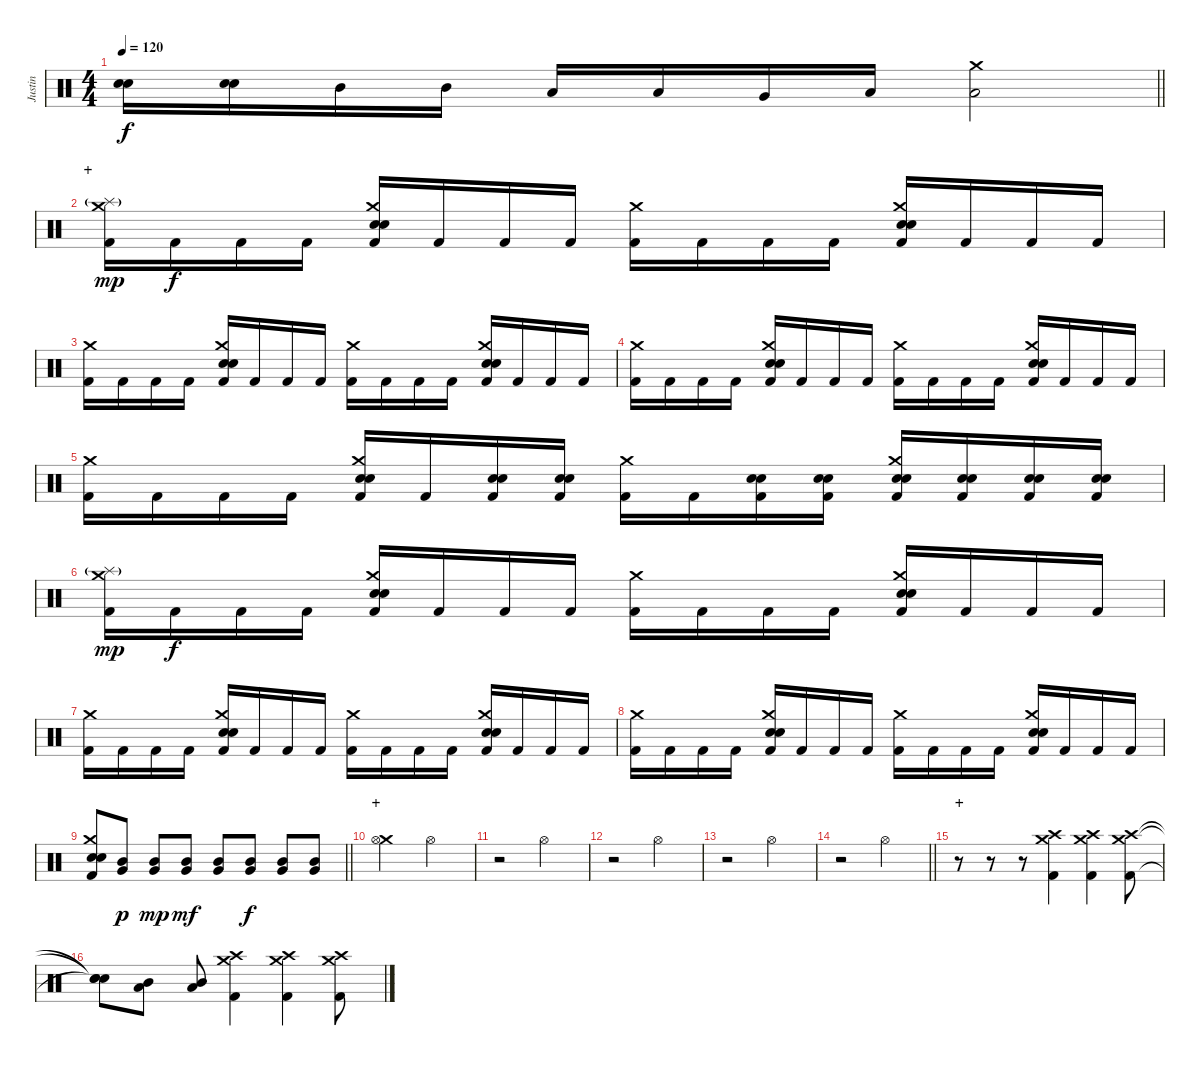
\track ("Justin" "Justin") {instrument percussion}
\staff {score}
\articulation defaults
\ts (4 4)
\tempo 120
\clef neutral
\barLineRight lightlight
\ks c
("Electric Snare (hit)" "Snare (hit) 2").16{dy f} ("Electric Snare (hit)" "Snare (hit) 2").16 "Mid Tom (hit)".16 "Mid Tom (hit)".16 "Low Tom (hit)".16 "Low Tom (hit)".16 "Very Low Tom (hit)".16 "Low Floor Tom (hit)".16 ("Crash medium (hit)" "Low Tom (hit)").2 |
\section ("" "+")
("Crash medium (hit)" "Splash (hit)"{g} "Kick (hit) 2").16{dy mp} "Kick (hit) 2".16{dy f} "Kick (hit) 2".16 "Kick (hit) 2".16 ("Crash medium (hit)" "Electric Snare (hit)" "Snare (hit) 2" "Kick (hit) 2").16 "Kick (hit) 2".16 "Kick (hit) 2".16 "Kick (hit) 2".16 ("Crash medium (hit)" "Kick (hit) 2").16 "Kick (hit) 2".16 "Kick (hit) 2".16 "Kick (hit) 2".16 ("Crash medium (hit)" "Electric Snare (hit)" "Snare (hit) 2" "Kick (hit) 2").16 "Kick (hit) 2".16 "Kick (hit) 2".16 "Kick (hit) 2".16 |
("Crash medium (hit)" "Kick (hit) 2").16 "Kick (hit) 2".16 "Kick (hit) 2".16 "Kick (hit) 2".16 ("Crash medium (hit)" "Electric Snare (hit)" "Snare (hit) 2" "Kick (hit) 2").16 "Kick (hit) 2".16 "Kick (hit) 2".16 "Kick (hit) 2".16 ("Crash medium (hit)" "Kick (hit) 2").16 "Kick (hit) 2".16 "Kick (hit) 2".16 "Kick (hit) 2".16 ("Crash medium (hit)" "Electric Snare (hit)" "Snare (hit) 2" "Kick (hit) 2").16 "Kick (hit) 2".16 "Kick (hit) 2".16 "Kick (hit) 2".16 |
("Crash medium (hit)" "Kick (hit) 2").16 "Kick (hit) 2".16 "Kick (hit) 2".16 "Kick (hit) 2".16 ("Crash medium (hit)" "Electric Snare (hit)" "Snare (hit) 2" "Kick (hit) 2").16 "Kick (hit) 2".16 "Kick (hit) 2".16 "Kick (hit) 2".16 ("Crash medium (hit)" "Kick (hit) 2").16 "Kick (hit) 2".16 "Kick (hit) 2".16 "Kick (hit) 2".16 ("Crash medium (hit)" "Electric Snare (hit)" "Snare (hit) 2" "Kick (hit) 2").16 "Kick (hit) 2".16 "Kick (hit) 2".16 "Kick (hit) 2".16 |
("Crash medium (hit)" "Kick (hit) 2").16 "Kick (hit) 2".16 "Kick (hit) 2".16 "Kick (hit) 2".16 ("Crash medium (hit)" "Electric Snare (hit)" "Snare (hit) 2" "Kick (hit) 2").16 "Kick (hit) 2".16 ("Electric Snare (hit)" "Snare (hit) 2" "Kick (hit) 2").16 ("Electric Snare (hit)" "Snare (hit) 2" "Kick (hit) 2").16 ("Crash medium (hit)" "Kick (hit) 2").16 "Kick (hit) 2".16 ("Electric Snare (hit)" "Snare (hit) 2" "Kick (hit) 2").16 ("Electric Snare (hit)" "Snare (hit) 2" "Kick (hit) 2").16 ("Crash medium (hit)" "Electric Snare (hit)" "Snare (hit) 2" "Kick (hit) 2").16 ("Electric Snare (hit)" "Snare (hit) 2" "Kick (hit) 2").16 ("Electric Snare (hit)" "Snare (hit) 2" "Kick (hit) 2").16 ("Electric Snare (hit)" "Snare (hit) 2" "Kick (hit) 2").16 |
("Crash medium (hit)" "Splash (hit)"{g} "Kick (hit) 2").16{dy mp} "Kick (hit) 2".16{dy f} "Kick (hit) 2".16 "Kick (hit) 2".16 ("Crash medium (hit)" "Electric Snare (hit)" "Snare (hit) 2" "Kick (hit) 2").16 "Kick (hit) 2".16 "Kick (hit) 2".16 "Kick (hit) 2".16 ("Crash medium (hit)" "Kick (hit) 2").16 "Kick (hit) 2".16 "Kick (hit) 2".16 "Kick (hit) 2".16 ("Crash medium (hit)" "Electric Snare (hit)" "Snare (hit) 2" "Kick (hit) 2").16 "Kick (hit) 2".16 "Kick (hit) 2".16 "Kick (hit) 2".16 |
("Crash medium (hit)" "Kick (hit) 2").16 "Kick (hit) 2".16 "Kick (hit) 2".16 "Kick (hit) 2".16 ("Crash medium (hit)" "Electric Snare (hit)" "Snare (hit) 2" "Kick (hit) 2").16 "Kick (hit) 2".16 "Kick (hit) 2".16 "Kick (hit) 2".16 ("Crash medium (hit)" "Kick (hit) 2").16 "Kick (hit) 2".16 "Kick (hit) 2".16 "Kick (hit) 2".16 ("Crash medium (hit)" "Electric Snare (hit)" "Snare (hit) 2" "Kick (hit) 2").16 "Kick (hit) 2".16 "Kick (hit) 2".16 "Kick (hit) 2".16 |
("Crash medium (hit)" "Kick (hit) 2").16 "Kick (hit) 2".16 "Kick (hit) 2".16 "Kick (hit) 2".16 ("Crash medium (hit)" "Electric Snare (hit)" "Snare (hit) 2" "Kick (hit) 2").16 "Kick (hit) 2".16 "Kick (hit) 2".16 "Kick (hit) 2".16 ("Crash medium (hit)" "Kick (hit) 2").16 "Kick (hit) 2".16 "Kick (hit) 2".16 "Kick (hit) 2".16 ("Crash medium (hit)" "Electric Snare (hit)" "Snare (hit) 2" "Kick (hit) 2").16 "Kick (hit) 2".16 "Kick (hit) 2".16 "Kick (hit) 2".16 |
\barLineRight lightlight
("Crash medium (hit)" "Electric Snare (hit)" "Snare (hit) 2" "Kick (hit) 2").8 ("Mid Tom (hit)" "Very Low Tom (hit)").8{dy p} ("Mid Tom (hit)" "Very Low Tom (hit)").8{dy mp} ("Mid Tom (hit)" "Very Low Tom (hit)").8{dy mf} ("Mid Tom (hit)" "Very Low Tom (hit)").8 ("Mid Tom (hit)" "Very Low Tom (hit)").8{dy f} ("Mid Tom (hit)" "Very Low Tom (hit)").8 ("Mid Tom (hit)" "Very Low Tom (hit)").8 |
\section ("" "+")
("Crash medium (hit)" "Hi-Hat (open)").2 "Hi-Hat (open)".2 |
r.2 "Hi-Hat (open)".2 |
r.2 "Hi-Hat (open)".2 |
r.2 "Hi-Hat (open)".2 |
\barLineRight lightlight
r.2 "Hi-Hat (open)".2 |
\section ("" "+")
r.8 r.8 r.8 ("Crash medium (hit)" "Crash high (hit)" "Kick (hit) 2").4 ("Crash medium (hit)" "Crash high (hit)" "Kick (hit) 2").4 ("Crash medium (hit)" "Crash high (hit)" "Kick (hit) 2").8 |
("Snare (hit)"{t} "Snare (hit)"{t} "Snare (hit)"{t}).8 ("Mid Tom (hit)" "Low Tom (hit)").8 ("Mid Tom (hit)" "Low Tom (hit)").8 ("Crash medium (hit)" "Crash high (hit)" "Kick (hit) 2").4 ("Crash medium (hit)" "Crash high (hit)" "Kick (hit) 2").4 ("Crash medium (hit)" "Crash high (hit)" "Kick (hit) 2").8
